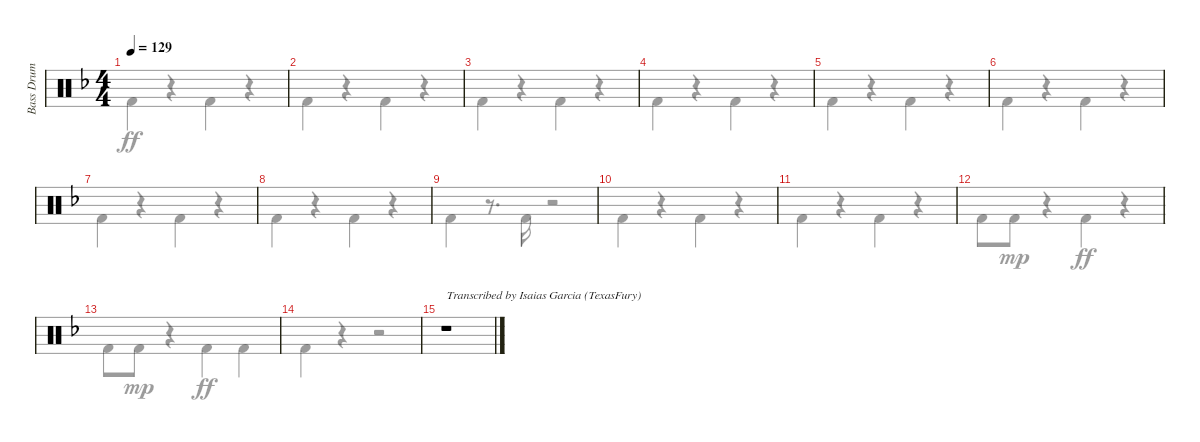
\track ("Bass Drum" "Bass Drum") {instrument percussion}
\staff {score}
\articulation defaults
\voice
\ts (4 4)
\tempo 129
\clef neutral
\ks dminor
|
|
|
|
|
|
|
|
|
|
|
|
|
|
r.1{txt "Transcribed by Isaias Garcia (TexasFury)"}
\voice
\clef neutral
\ottava regular
\simile none
\ks dminor "Kick (hit) 2".4{dy ff}
r.4 "Kick (hit) 2".4 r.4 |
"Kick (hit) 2".4 r.4 "Kick (hit) 2".4 r.4 |
"Kick (hit) 2".4 r.4 "Kick (hit) 2".4 r.4 |
"Kick (hit) 2".4 r.4 "Kick (hit) 2".4 r.4 |
"Kick (hit) 2".4 r.4 "Kick (hit) 2".4 r.4 |
"Kick (hit) 2".4 r.4 "Kick (hit) 2".4 r.4 |
"Kick (hit) 2".4 r.4 "Kick (hit) 2".4 r.4 |
"Kick (hit) 2".4 r.4 "Kick (hit) 2".4 r.4 |
"Kick (hit) 2".4 r.8{d} "Kick (hit) 2".16 r.2 |
"Kick (hit) 2".4 r.4 "Kick (hit) 2".4 r.4 |
"Kick (hit) 2".4 r.4 "Kick (hit) 2".4 r.4 |
"Kick (hit) 2".8 "Kick (hit) 2".8{dy mp} r.4 "Kick (hit) 2".4{dy ff} r.4 |
"Kick (hit) 2".8 "Kick (hit) 2".8{dy mp} r.4 "Kick (hit) 2".4{dy ff} "Kick (hit) 2".4 |
"Kick (hit) 2".4 r.4 r.2 |
r.1
